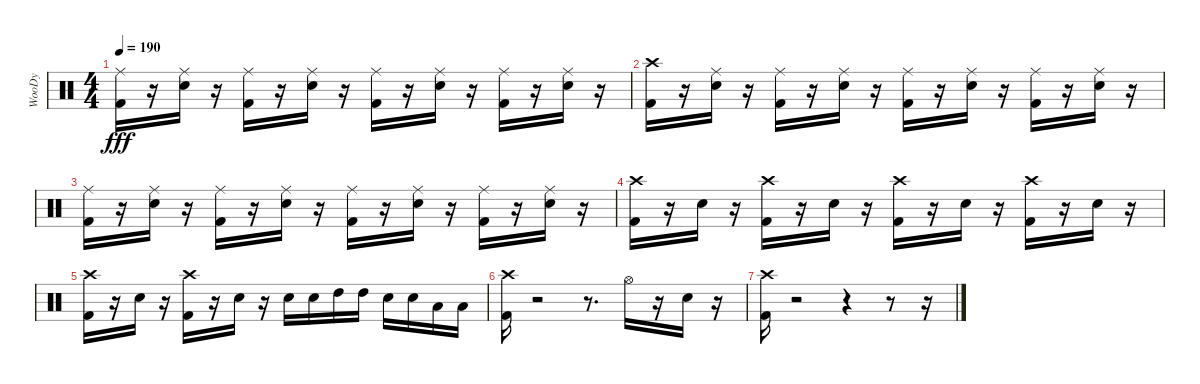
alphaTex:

\track ("WooDy" "WooDy") {instrument percussion}
\staff {score}
\articulation defaults
\ts (4 4)
\tempo 190
\clef neutral
\ks c
("Kick (hit) 2" "Ride (middle)").16{dy fff} r.16 ("Snare (hit) 2" "Ride (middle)").16 r.16 ("Kick (hit) 2" "Ride (middle)").16 r.16 ("Snare (hit) 2" "Ride (middle)").16 r.16 ("Kick (hit) 2" "Ride (middle)").16 r.16 ("Snare (hit) 2" "Ride (middle)").16 r.16 ("Kick (hit) 2" "Ride (middle)").16 r.16 ("Snare (hit) 2" "Ride (middle)").16 r.16 |
("Kick (hit) 2" "Crash high (hit)").16 r.16 ("Snare (hit) 2" "Ride (middle)").16 r.16 ("Kick (hit) 2" "Ride (middle)").16 r.16 ("Snare (hit) 2" "Ride (middle)").16 r.16 ("Kick (hit) 2" "Ride (middle)").16 r.16 ("Snare (hit) 2" "Ride (middle)").16 r.16 ("Kick (hit) 2" "Ride (middle)").16 r.16 ("Snare (hit) 2" "Ride (middle)").16 r.16 |
("Kick (hit) 2" "Ride (middle)").16 r.16 ("Snare (hit) 2" "Ride (middle)").16 r.16 ("Kick (hit) 2" "Ride (middle)").16 r.16 ("Snare (hit) 2" "Ride (middle)").16 r.16 ("Kick (hit) 2" "Ride (middle)").16 r.16 ("Snare (hit) 2" "Ride (middle)").16 r.16 ("Kick (hit) 2" "Ride (middle)").16 r.16 ("Snare (hit) 2" "Ride (middle)").16 r.16 |
("Kick (hit) 2" "Crash high (hit)").16 r.16 "Snare (hit) 2".16 r.16 ("Kick (hit) 2" "Crash high (hit)").16 r.16 "Snare (hit) 2".16 r.16 ("Kick (hit) 2" "Crash high (hit)").16 r.16 "Snare (hit) 2".16 r.16 ("Kick (hit) 2" "Crash high (hit)").16 r.16 "Snare (hit) 2".16 r.16 |
("Kick (hit) 2" "Crash high (hit)").16 r.16 "Snare (hit) 2".16 r.16 ("Kick (hit) 2" "Crash high (hit)").16 r.16 "Snare (hit) 2".16 r.16 "Snare (hit) 2".16 "Snare (hit) 2".16 "High Tom (hit)".16 "High Tom (hit)".16 "Snare (hit) 2".16 "Snare (hit) 2".16 "Low Tom (hit)".16 "Low Tom (hit)".16 |
("Kick (hit) 2" "Crash high (hit)").16 r.2 r.8{d} "Hi-Hat (open)".16 r.16 "Snare (hit) 2".16 r.16 |
("Kick (hit) 2" "Crash high (hit)").16 r.2 r.4 r.8 r.16
